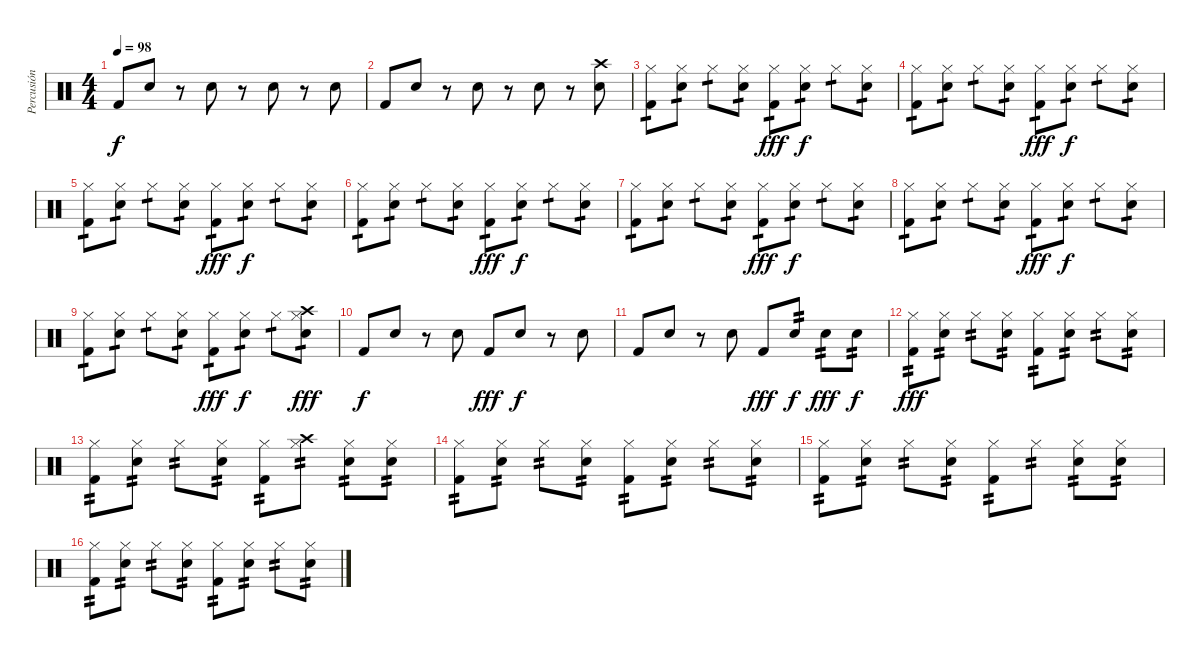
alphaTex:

\track ("Percusión" "Percusión") {instrument percussion}
\staff {score}
\articulation defaults
\ts (4 4)
\tempo 98
\clef neutral
\ks c "Kick (hit) 2".8{dy f} "Snare (hit) 2".8
r.8 "Snare (hit) 2".8 r.8 "Snare (hit) 2".8 r.8 "Snare (hit) 2".8 |
"Kick (hit) 2".8 "Snare (hit) 2".8 r.8 "Snare (hit) 2".8 r.8 "Snare (hit) 2".8 r.8 ("Crash high (hit)" "Snare (hit) 2").8 |
("Hi-Hat (closed)" "Kick (hit) 2").8{tp 1} ("Hi-Hat (closed)" "Snare (hit) 2").8{tp 1} "Hi-Hat (closed)".8{tp 1} ("Hi-Hat (closed)" "Snare (hit) 2").8{tp 1} ("Hi-Hat (closed)" "Kick (hit) 2").8{tp 1 dy fff} ("Hi-Hat (closed)" "Snare (hit) 2").8{tp 1 dy f} "Hi-Hat (closed)".8{tp 1} ("Hi-Hat (closed)" "Snare (hit) 2").8{tp 1} |
("Hi-Hat (closed)" "Kick (hit) 2").8{tp 1} ("Hi-Hat (closed)" "Snare (hit) 2").8{tp 1} "Hi-Hat (closed)".8{tp 1} ("Hi-Hat (closed)" "Snare (hit) 2").8{tp 1} ("Hi-Hat (closed)" "Kick (hit) 2").8{tp 1 dy fff} ("Hi-Hat (closed)" "Snare (hit) 2").8{tp 1 dy f} "Hi-Hat (closed)".8{tp 1} ("Hi-Hat (closed)" "Snare (hit) 2").8{tp 1} |
("Hi-Hat (closed)" "Kick (hit) 2").8{tp 1} ("Hi-Hat (closed)" "Snare (hit) 2").8{tp 1} "Hi-Hat (closed)".8{tp 1} ("Hi-Hat (closed)" "Snare (hit) 2").8{tp 1} ("Hi-Hat (closed)" "Kick (hit) 2").8{tp 1 dy fff} ("Hi-Hat (closed)" "Snare (hit) 2").8{tp 1 dy f} "Hi-Hat (closed)".8{tp 1} ("Hi-Hat (closed)" "Snare (hit) 2").8{tp 1} |
("Hi-Hat (closed)" "Kick (hit) 2").8{tp 1} ("Hi-Hat (closed)" "Snare (hit) 2").8{tp 1} "Hi-Hat (closed)".8{tp 1} ("Hi-Hat (closed)" "Snare (hit) 2").8{tp 1} ("Hi-Hat (closed)" "Kick (hit) 2").8{tp 1 dy fff} ("Hi-Hat (closed)" "Snare (hit) 2").8{tp 1 dy f} "Hi-Hat (closed)".8{tp 1} ("Hi-Hat (closed)" "Snare (hit) 2").8{tp 1} |
("Hi-Hat (closed)" "Kick (hit) 2").8{tp 1} ("Hi-Hat (closed)" "Snare (hit) 2").8{tp 1} "Hi-Hat (closed)".8{tp 1} ("Hi-Hat (closed)" "Snare (hit) 2").8{tp 1} ("Hi-Hat (closed)" "Kick (hit) 2").8{tp 1 dy fff} ("Hi-Hat (closed)" "Snare (hit) 2").8{tp 1 dy f} "Hi-Hat (closed)".8{tp 1} ("Hi-Hat (closed)" "Snare (hit) 2").8{tp 1} |
("Hi-Hat (closed)" "Kick (hit) 2").8{tp 1} ("Hi-Hat (closed)" "Snare (hit) 2").8{tp 1} "Hi-Hat (closed)".8{tp 1} ("Hi-Hat (closed)" "Snare (hit) 2").8{tp 1} ("Hi-Hat (closed)" "Kick (hit) 2").8{tp 1 dy fff} ("Hi-Hat (closed)" "Snare (hit) 2").8{tp 1 dy f} "Hi-Hat (closed)".8{tp 1} ("Hi-Hat (closed)" "Snare (hit) 2").8{tp 1} |
("Hi-Hat (closed)" "Kick (hit) 2").8{tp 1} ("Hi-Hat (closed)" "Snare (hit) 2").8{tp 1} "Hi-Hat (closed)".8{tp 1} ("Hi-Hat (closed)" "Snare (hit) 2").8{tp 1} ("Hi-Hat (closed)" "Kick (hit) 2").8{tp 1 dy fff} ("Hi-Hat (closed)" "Snare (hit) 2").8{tp 1 dy f} "Hi-Hat (closed)".8{tp 1} ("Hi-Hat (closed)" "Snare (hit) 2" "Crash high (hit)").8{tp 1 dy fff} |
"Kick (hit) 2".8{dy f} "Snare (hit) 2".8 r.8 "Snare (hit) 2".8 "Kick (hit) 2".8{dy fff} "Snare (hit) 2".8{dy f} r.8 "Snare (hit) 2".8 |
"Kick (hit) 2".8 "Snare (hit) 2".8 r.8 "Snare (hit) 2".8 "Kick (hit) 2".8{dy fff} "Snare (hit) 2".8{tp 2 dy f} "Snare (hit) 2".8{tp 2 dy fff} "Snare (hit) 2".8{tp 2 dy f} |
("Hi-Hat (closed)" "Kick (hit) 2").8{tp 2 dy fff} ("Hi-Hat (closed)" "Snare (hit) 2").8{tp 2} "Hi-Hat (closed)".8{tp 2} ("Hi-Hat (closed)" "Snare (hit) 2").8{tp 2} ("Hi-Hat (closed)" "Kick (hit) 2").8{tp 2} ("Hi-Hat (closed)" "Snare (hit) 2").8{tp 2} "Hi-Hat (closed)".8{tp 2} ("Hi-Hat (closed)" "Snare (hit) 2").8{tp 2} |
("Hi-Hat (closed)" "Kick (hit) 2").8{tp 2} ("Hi-Hat (closed)" "Snare (hit) 2").8{tp 2} "Hi-Hat (closed)".8{tp 2} ("Hi-Hat (closed)" "Snare (hit) 2").8{tp 2} ("Hi-Hat (closed)" "Kick (hit) 2").8{tp 2} ("Hi-Hat (closed)" "Crash high (hit)").8{tp 2} ("Hi-Hat (closed)" "Snare (hit) 2").8{tp 2} ("Hi-Hat (closed)" "Snare (hit) 2").8{tp 2} |
("Hi-Hat (closed)" "Kick (hit) 2").8{tp 2} ("Hi-Hat (closed)" "Snare (hit) 2").8{tp 2} "Hi-Hat (closed)".8{tp 2} ("Hi-Hat (closed)" "Snare (hit) 2").8{tp 2} ("Hi-Hat (closed)" "Kick (hit) 2").8{tp 2} ("Hi-Hat (closed)" "Snare (hit) 2").8{tp 2} "Hi-Hat (closed)".8{tp 2} ("Hi-Hat (closed)" "Snare (hit) 2").8{tp 2} |
("Hi-Hat (closed)" "Kick (hit) 2").8{tp 2} ("Hi-Hat (closed)" "Snare (hit) 2").8{tp 2} "Hi-Hat (closed)".8{tp 2} ("Hi-Hat (closed)" "Snare (hit) 2").8{tp 2} ("Hi-Hat (closed)" "Kick (hit) 2").8{tp 2} "Hi-Hat (closed)".8{tp 2} ("Hi-Hat (closed)" "Snare (hit) 2").8{tp 2} ("Hi-Hat (closed)" "Snare (hit) 2").8{tp 2} |
("Hi-Hat (closed)" "Kick (hit) 2").8{tp 2} ("Hi-Hat (closed)" "Snare (hit) 2").8{tp 2} "Hi-Hat (closed)".8{tp 2} ("Hi-Hat (closed)" "Snare (hit) 2").8{tp 2} ("Hi-Hat (closed)" "Kick (hit) 2").8{tp 2} ("Hi-Hat (closed)" "Snare (hit) 2").8{tp 2} "Hi-Hat (closed)".8{tp 2} ("Hi-Hat (closed)" "Snare (hit) 2").8{tp 2}
